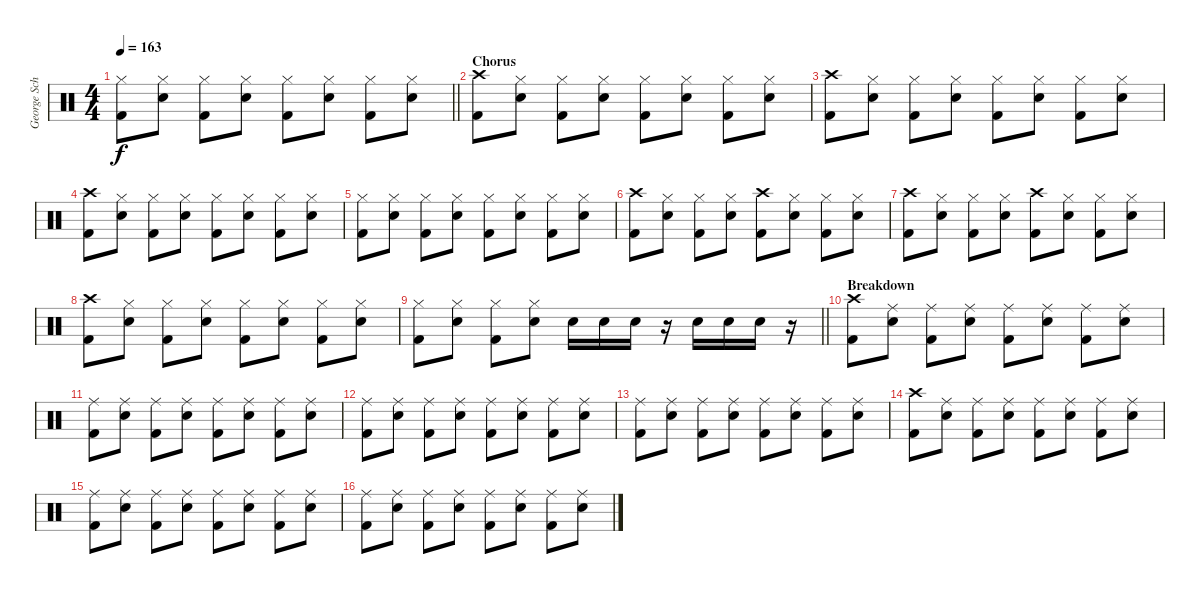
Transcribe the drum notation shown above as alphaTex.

\track ("George Schwindt" "George Sch") {instrument percussion}
\staff {score}
\articulation defaults
\ts (4 4)
\tempo 163
\clef neutral
\barLineRight lightlight
\ks c
("Hi-Hat (closed)" "Kick (hit) 2").8{dy f} ("Hi-Hat (closed)" "Snare (hit) 2").8 ("Hi-Hat (closed)" "Kick (hit) 2").8 ("Hi-Hat (closed)" "Snare (hit) 2").8 ("Hi-Hat (closed)" "Kick (hit) 2").8 ("Hi-Hat (closed)" "Snare (hit) 2").8 ("Hi-Hat (closed)" "Kick (hit) 2").8 ("Hi-Hat (closed)" "Snare (hit) 2").8 |
\section ("" "Chorus")
("Crash high (hit)" "Kick (hit) 2").8 ("Hi-Hat (closed)" "Snare (hit) 2").8 ("Hi-Hat (closed)" "Kick (hit) 2").8 ("Hi-Hat (closed)" "Snare (hit) 2").8 ("Hi-Hat (closed)" "Kick (hit) 2").8 ("Hi-Hat (closed)" "Snare (hit) 2").8 ("Hi-Hat (closed)" "Kick (hit) 2").8 ("Hi-Hat (closed)" "Snare (hit) 2").8 |
("Crash high (hit)" "Kick (hit) 2").8 ("Hi-Hat (closed)" "Snare (hit) 2").8 ("Hi-Hat (closed)" "Kick (hit) 2").8 ("Hi-Hat (closed)" "Snare (hit) 2").8 ("Hi-Hat (closed)" "Kick (hit) 2").8 ("Hi-Hat (closed)" "Snare (hit) 2").8 ("Hi-Hat (closed)" "Kick (hit) 2").8 ("Hi-Hat (closed)" "Snare (hit) 2").8 |
("Crash high (hit)" "Kick (hit) 2").8 ("Hi-Hat (closed)" "Snare (hit) 2").8 ("Hi-Hat (closed)" "Kick (hit) 2").8 ("Hi-Hat (closed)" "Snare (hit) 2").8 ("Hi-Hat (closed)" "Kick (hit) 2").8 ("Hi-Hat (closed)" "Snare (hit) 2").8 ("Hi-Hat (closed)" "Kick (hit) 2").8 ("Hi-Hat (closed)" "Snare (hit) 2").8 |
("Hi-Hat (closed)" "Kick (hit) 2").8 ("Hi-Hat (closed)" "Snare (hit) 2").8 ("Hi-Hat (closed)" "Kick (hit) 2").8 ("Hi-Hat (closed)" "Snare (hit) 2").8 ("Hi-Hat (closed)" "Kick (hit) 2").8 ("Hi-Hat (closed)" "Snare (hit) 2").8 ("Hi-Hat (closed)" "Kick (hit) 2").8 ("Hi-Hat (closed)" "Snare (hit) 2").8 |
("Crash high (hit)" "Kick (hit) 2").8 ("Hi-Hat (closed)" "Snare (hit) 2").8 ("Hi-Hat (closed)" "Kick (hit) 2").8 ("Hi-Hat (closed)" "Snare (hit) 2").8 ("Crash high (hit)" "Kick (hit) 2").8 ("Hi-Hat (closed)" "Snare (hit) 2").8 ("Hi-Hat (closed)" "Kick (hit) 2").8 ("Hi-Hat (closed)" "Snare (hit) 2").8 |
("Crash high (hit)" "Kick (hit) 2").8 ("Hi-Hat (closed)" "Snare (hit) 2").8 ("Hi-Hat (closed)" "Kick (hit) 2").8 ("Hi-Hat (closed)" "Snare (hit) 2").8 ("Crash high (hit)" "Kick (hit) 2").8 ("Hi-Hat (closed)" "Snare (hit) 2").8 ("Hi-Hat (closed)" "Kick (hit) 2").8 ("Hi-Hat (closed)" "Snare (hit) 2").8 |
("Crash high (hit)" "Kick (hit) 2").8 ("Hi-Hat (closed)" "Snare (hit) 2").8 ("Hi-Hat (closed)" "Kick (hit) 2").8 ("Hi-Hat (closed)" "Snare (hit) 2").8 ("Hi-Hat (closed)" "Kick (hit) 2").8 ("Hi-Hat (closed)" "Snare (hit) 2").8 ("Hi-Hat (closed)" "Kick (hit) 2").8 ("Hi-Hat (closed)" "Snare (hit) 2").8 |
\barLineRight lightlight
("Hi-Hat (closed)" "Kick (hit) 2").8 ("Hi-Hat (closed)" "Snare (hit) 2").8 ("Hi-Hat (closed)" "Kick (hit) 2").8 ("Hi-Hat (closed)" "Snare (hit) 2").8 "Snare (hit) 2".16 "Snare (hit) 2".16 "Snare (hit) 2".16 r.16 "Snare (hit) 2".16 "Snare (hit) 2".16 "Snare (hit) 2".16 r.16 |
\section ("" "Breakdown")
("Crash high (hit)" "Kick (hit) 2").8 ("Ride (middle)" "Snare (hit) 2").8 ("Ride (middle)" "Kick (hit) 2").8 ("Ride (middle)" "Snare (hit) 2").8 ("Ride (middle)" "Kick (hit) 2").8 ("Ride (middle)" "Snare (hit) 2").8 ("Ride (middle)" "Kick (hit) 2").8 ("Ride (middle)" "Snare (hit) 2").8 |
("Ride (middle)" "Kick (hit) 2").8 ("Ride (middle)" "Snare (hit) 2").8 ("Ride (middle)" "Kick (hit) 2").8 ("Ride (middle)" "Snare (hit) 2").8 ("Ride (middle)" "Kick (hit) 2").8 ("Ride (middle)" "Snare (hit) 2").8 ("Ride (middle)" "Kick (hit) 2").8 ("Ride (middle)" "Snare (hit) 2").8 |
("Ride (middle)" "Kick (hit) 2").8 ("Ride (middle)" "Snare (hit) 2").8 ("Ride (middle)" "Kick (hit) 2").8 ("Ride (middle)" "Snare (hit) 2").8 ("Ride (middle)" "Kick (hit) 2").8 ("Ride (middle)" "Snare (hit) 2").8 ("Ride (middle)" "Kick (hit) 2").8 ("Ride (middle)" "Snare (hit) 2").8 |
("Ride (middle)" "Kick (hit) 2").8 ("Ride (middle)" "Snare (hit) 2").8 ("Ride (middle)" "Kick (hit) 2").8 ("Ride (middle)" "Snare (hit) 2").8 ("Ride (middle)" "Kick (hit) 2").8 ("Ride (middle)" "Snare (hit) 2").8 ("Ride (middle)" "Kick (hit) 2").8 ("Ride (middle)" "Snare (hit) 2").8 |
("Crash high (hit)" "Kick (hit) 2").8 ("Ride (middle)" "Snare (hit) 2").8 ("Ride (middle)" "Kick (hit) 2").8 ("Ride (middle)" "Snare (hit) 2").8 ("Ride (middle)" "Kick (hit) 2").8 ("Ride (middle)" "Snare (hit) 2").8 ("Ride (middle)" "Kick (hit) 2").8 ("Ride (middle)" "Snare (hit) 2").8 |
("Ride (middle)" "Kick (hit) 2").8 ("Ride (middle)" "Snare (hit) 2").8 ("Ride (middle)" "Kick (hit) 2").8 ("Ride (middle)" "Snare (hit) 2").8 ("Ride (middle)" "Kick (hit) 2").8 ("Ride (middle)" "Snare (hit) 2").8 ("Ride (middle)" "Kick (hit) 2").8 ("Ride (middle)" "Snare (hit) 2").8 |
("Ride (middle)" "Kick (hit) 2").8 ("Ride (middle)" "Snare (hit) 2").8 ("Ride (middle)" "Kick (hit) 2").8 ("Ride (middle)" "Snare (hit) 2").8 ("Ride (middle)" "Kick (hit) 2").8 ("Ride (middle)" "Snare (hit) 2").8 ("Ride (middle)" "Kick (hit) 2").8 ("Ride (middle)" "Snare (hit) 2").8
